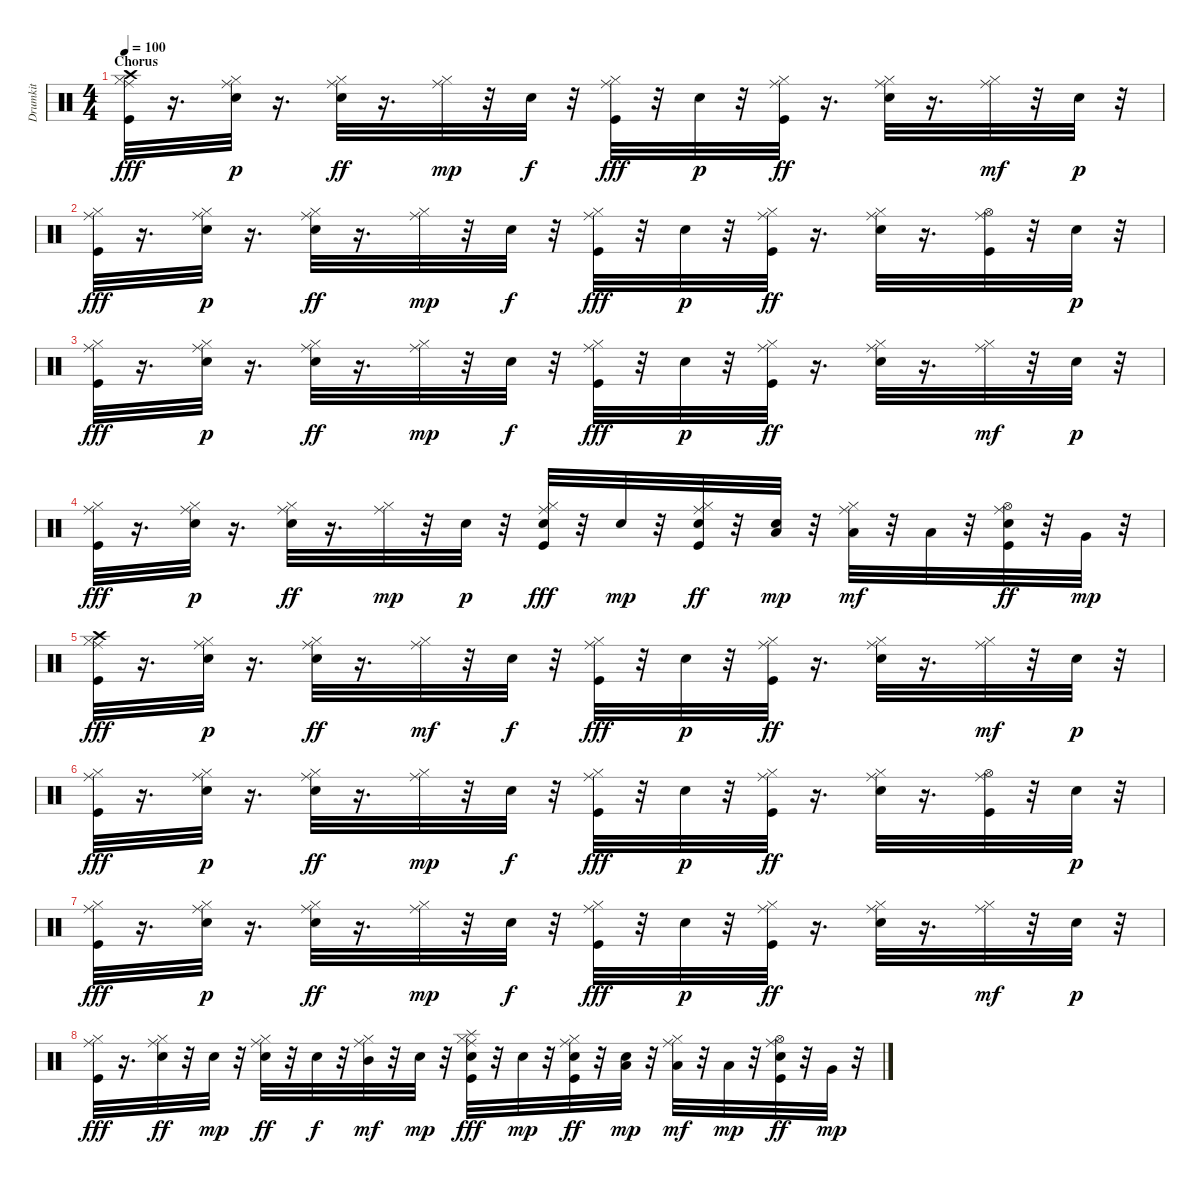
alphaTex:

\track ("Drumkit" "Drumkit") {instrument percussion}
\staff {score}
\articulation defaults
\ts (4 4)
\section ("" "Chorus")
\tempo 100
\clef neutral
\ks c
("Kick (hit)" "Hi-Hat (closed)" "Crash high (hit)" "Ride (middle)").32{dy fff} r.16{d} ("Snare (hit) 2" "Hi-Hat (closed)" "Ride (middle)").32{dy p} r.16{d} ("Snare (hit) 2" "Hi-Hat (closed)" "Ride (middle)").32{dy ff} r.16{d} ("Hi-Hat (closed)" "Ride (middle)").32{dy mp} r.32 "Snare (hit) 2".32{dy f} r.32 ("Kick (hit)" "Hi-Hat (closed)" "Ride (middle)").32{dy fff} r.32 "Snare (hit) 2".32{dy p} r.32 ("Kick (hit)" "Hi-Hat (closed)" "Ride (middle)").32{dy ff} r.16{d} ("Snare (hit) 2" "Hi-Hat (closed)" "Ride (middle)").32 r.16{d} ("Hi-Hat (closed)" "Ride (middle)").32{dy mf} r.32 "Snare (hit) 2".32{dy p} r.32 |
("Kick (hit)" "Hi-Hat (closed)" "Ride (middle)").32{dy fff} r.16{d} ("Snare (hit) 2" "Hi-Hat (closed)" "Ride (middle)").32{dy p} r.16{d} ("Snare (hit) 2" "Hi-Hat (closed)" "Ride (middle)").32{dy ff} r.16{d} ("Hi-Hat (closed)" "Ride (middle)").32{dy mp} r.32 "Snare (hit) 2".32{dy f} r.32 ("Kick (hit)" "Hi-Hat (closed)" "Ride (middle)").32{dy fff} r.32 "Snare (hit) 2".32{dy p} r.32 ("Kick (hit)" "Hi-Hat (closed)" "Ride (middle)").32{dy ff} r.16{d} ("Snare (hit) 2" "Hi-Hat (closed)" "Ride (middle)").32 r.16{d} ("Kick (hit)" "Hi-Hat (open)" "Ride (middle)").32 r.32 "Snare (hit) 2".32{dy p} r.32 |
("Kick (hit)" "Hi-Hat (closed)" "Ride (middle)").32{dy fff} r.16{d} ("Snare (hit) 2" "Hi-Hat (closed)" "Ride (middle)").32{dy p} r.16{d} ("Snare (hit) 2" "Hi-Hat (closed)" "Ride (middle)").32{dy ff} r.16{d} ("Hi-Hat (closed)" "Ride (middle)").32{dy mp} r.32 "Snare (hit) 2".32{dy f} r.32 ("Kick (hit)" "Hi-Hat (closed)" "Ride (middle)").32{dy fff} r.32 "Snare (hit) 2".32{dy p} r.32 ("Kick (hit)" "Hi-Hat (closed)" "Ride (middle)").32{dy ff} r.16{d} ("Snare (hit) 2" "Hi-Hat (closed)" "Ride (middle)").32 r.16{d} ("Hi-Hat (closed)" "Ride (middle)").32{dy mf} r.32 "Snare (hit) 2".32{dy p} r.32 |
("Kick (hit)" "Hi-Hat (closed)" "Ride (middle)").32{dy fff} r.16{d} ("Snare (hit) 2" "Hi-Hat (closed)" "Ride (middle)").32{dy p} r.16{d} ("Snare (hit) 2" "Hi-Hat (closed)" "Ride (middle)").32{dy ff} r.16{d} ("Hi-Hat (closed)" "Ride (middle)").32{dy mp} r.32 "Snare (hit) 2".32{dy p} r.32 ("Kick (hit)" "Snare (hit) 2" "Hi-Hat (closed)" "Ride (middle)").32{dy fff} r.32 "Snare (hit) 2".32{dy mp} r.32 ("Kick (hit)" "Snare (hit) 2" "Hi-Hat (closed)" "Ride (middle)").32{dy ff} r.32 ("Snare (hit) 2" "Low Tom (hit)").32{dy mp} r.32 ("Hi-Hat (closed)" "Low Tom (hit)" "Ride (middle)").32{dy mf} r.32 "Low Tom (hit)".32 r.32 ("Kick (hit)" "Snare (hit) 2" "Hi-Hat (open)" "Ride (middle)").32{dy ff} r.32 "Very Low Tom (hit)".32{dy mp} r.32 |
("Kick (hit)" "Hi-Hat (closed)" "Crash high (hit)" "Ride (middle)").32{dy fff} r.16{d} ("Snare (hit) 2" "Hi-Hat (closed)" "Ride (middle)").32{dy p} r.16{d} ("Snare (hit) 2" "Hi-Hat (closed)" "Ride (middle)").32{dy ff} r.16{d} ("Hi-Hat (closed)" "Ride (middle)").32{dy mf} r.32 "Snare (hit) 2".32{dy f} r.32 ("Kick (hit)" "Hi-Hat (closed)" "Ride (middle)").32{dy fff} r.32 "Snare (hit) 2".32{dy p} r.32 ("Kick (hit)" "Hi-Hat (closed)" "Ride (middle)").32{dy ff} r.16{d} ("Snare (hit) 2" "Hi-Hat (closed)" "Ride (middle)").32 r.16{d} ("Hi-Hat (closed)" "Ride (middle)").32{dy mf} r.32 "Snare (hit) 2".32{dy p} r.32 |
("Kick (hit)" "Hi-Hat (closed)" "Ride (middle)").32{dy fff} r.16{d} ("Snare (hit) 2" "Hi-Hat (closed)" "Ride (middle)").32{dy p} r.16{d} ("Snare (hit) 2" "Hi-Hat (closed)" "Ride (middle)").32{dy ff} r.16{d} ("Hi-Hat (closed)" "Ride (middle)").32{dy mp} r.32 "Snare (hit) 2".32{dy f} r.32 ("Kick (hit)" "Hi-Hat (closed)" "Ride (middle)").32{dy fff} r.32 "Snare (hit) 2".32{dy p} r.32 ("Kick (hit)" "Hi-Hat (closed)" "Ride (middle)").32{dy ff} r.16{d} ("Snare (hit) 2" "Hi-Hat (closed)" "Ride (middle)").32 r.16{d} ("Kick (hit)" "Hi-Hat (open)" "Ride (middle)").32 r.32 "Snare (hit) 2".32{dy p} r.32 |
("Kick (hit)" "Hi-Hat (closed)" "Ride (middle)").32{dy fff} r.16{d} ("Snare (hit) 2" "Hi-Hat (closed)" "Ride (middle)").32{dy p} r.16{d} ("Snare (hit) 2" "Hi-Hat (closed)" "Ride (middle)").32{dy ff} r.16{d} ("Hi-Hat (closed)" "Ride (middle)").32{dy mp} r.32 "Snare (hit) 2".32{dy f} r.32 ("Kick (hit)" "Hi-Hat (closed)" "Ride (middle)").32{dy fff} r.32 "Snare (hit) 2".32{dy p} r.32 ("Kick (hit)" "Hi-Hat (closed)" "Ride (middle)").32{dy ff} r.16{d} ("Snare (hit) 2" "Hi-Hat (closed)" "Ride (middle)").32 r.16{d} ("Hi-Hat (closed)" "Ride (middle)").32{dy mf} r.32 "Snare (hit) 2".32{dy p} r.32 |
("Kick (hit)" "Hi-Hat (closed)" "Ride (middle)").32{dy fff} r.16{d} ("Snare (hit) 2" "Hi-Hat (closed)" "Ride (middle)").32{dy ff} r.32 "Snare (hit) 2".32{dy mp} r.32 ("Snare (hit) 2" "Hi-Hat (closed)" "Ride (middle)").32{dy ff} r.32 "Snare (hit) 2".32{dy f} r.32 ("Hi-Hat (closed)" "Mid Tom (hit)" "Ride (middle)").32{dy mf} r.32 "Snare (hit) 2".32{dy mp} r.32 ("Kick (hit)" "Snare (hit) 2" "Hi-Hat (closed)" "Ride (middle)" "Splash (hit)").32{dy fff} r.32 "Snare (hit) 2".32{dy mp} r.32 ("Kick (hit)" "Snare (hit) 2" "Hi-Hat (closed)" "Ride (middle)").32{dy ff} r.32 ("Snare (hit) 2" "Low Tom (hit)").32{dy mp} r.32 ("Hi-Hat (closed)" "Low Tom (hit)" "Ride (middle)").32{dy mf} r.32 "Low Tom (hit)".32{dy mp} r.32 ("Kick (hit)" "Snare (hit) 2" "Hi-Hat (open)" "Ride (middle)").32{dy ff} r.32 "Very Low Tom (hit)".32{dy mp} r.32
